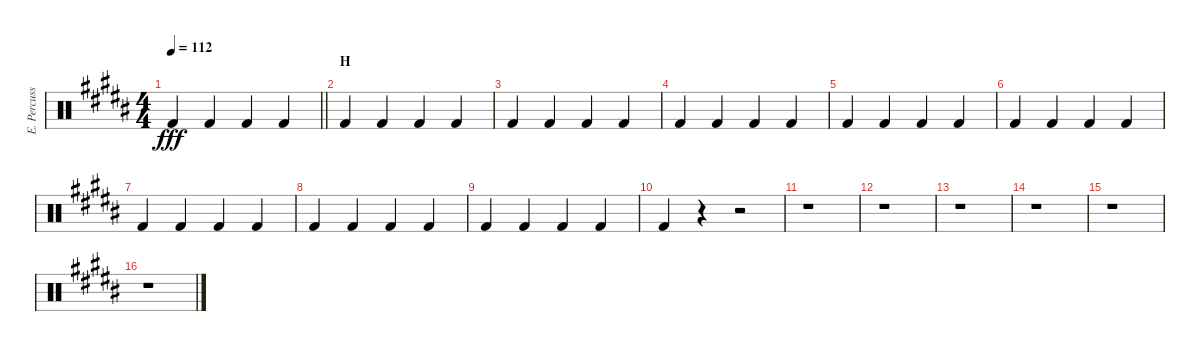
\track ("E. Percussion" "E. Percuss") {instrument percussion}
\staff {score}
\articulation defaults
\ts (4 4)
\tempo 112
\clef neutral
\barLineRight lightlight
\ks b "Kick (hit) 2".4{dy fff} "Kick (hit) 2".4 "Kick (hit) 2".4 "Kick (hit) 2".4
|
\section ("" "H")
"Kick (hit) 2".4 "Kick (hit) 2".4 "Kick (hit) 2".4 "Kick (hit) 2".4 |
"Kick (hit) 2".4 "Kick (hit) 2".4 "Kick (hit) 2".4 "Kick (hit) 2".4 |
"Kick (hit) 2".4 "Kick (hit) 2".4 "Kick (hit) 2".4 "Kick (hit) 2".4 |
"Kick (hit) 2".4 "Kick (hit) 2".4 "Kick (hit) 2".4 "Kick (hit) 2".4 |
"Kick (hit) 2".4 "Kick (hit) 2".4 "Kick (hit) 2".4 "Kick (hit) 2".4 |
"Kick (hit) 2".4 "Kick (hit) 2".4 "Kick (hit) 2".4 "Kick (hit) 2".4 |
"Kick (hit) 2".4 "Kick (hit) 2".4 "Kick (hit) 2".4 "Kick (hit) 2".4 |
"Kick (hit) 2".4 "Kick (hit) 2".4 "Kick (hit) 2".4 "Kick (hit) 2".4 |
"Kick (hit) 2".4 r.4 r.2 |
r.1 |
r.1 |
r.1 |
r.1 |
r.1 |
r.1
